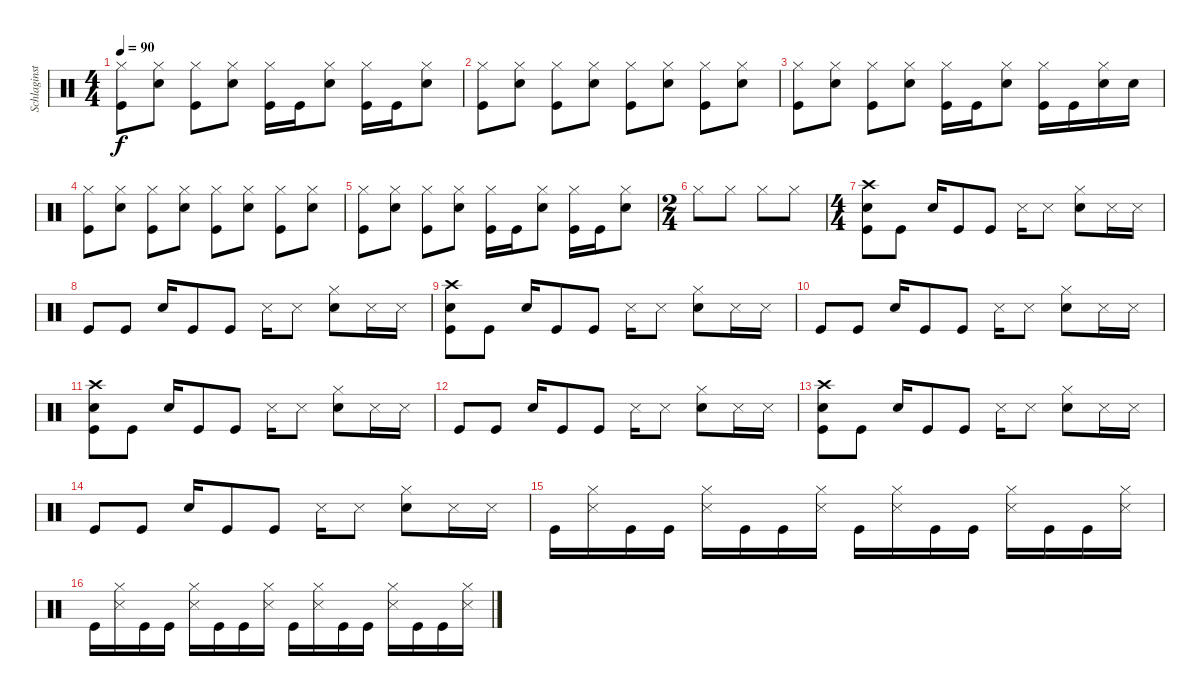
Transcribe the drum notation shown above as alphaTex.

\track ("Schlaginstrumente - Auswahl" "Schlaginst") {instrument percussion}
\staff {score}
\articulation defaults
\ts (4 4)
\tempo 90
\clef neutral
\ks c
("Hi-Hat (closed)" "Kick (hit)").8{dy f} ("Hi-Hat (closed)" "Snare (hit) 2").8 ("Hi-Hat (closed)" "Kick (hit)").8 ("Hi-Hat (closed)" "Snare (hit) 2").8 ("Hi-Hat (closed)" "Kick (hit)").16 "Kick (hit)".16 ("Hi-Hat (closed)" "Snare (hit) 2").8 ("Hi-Hat (closed)" "Kick (hit)").16 "Kick (hit)".16 ("Hi-Hat (closed)" "Snare (hit) 2").8 |
("Hi-Hat (closed)" "Kick (hit)").8 ("Hi-Hat (closed)" "Snare (hit) 2").8 ("Hi-Hat (closed)" "Kick (hit)").8 ("Hi-Hat (closed)" "Snare (hit) 2").8 ("Hi-Hat (closed)" "Kick (hit)").8 ("Hi-Hat (closed)" "Snare (hit) 2").8 ("Hi-Hat (closed)" "Kick (hit)").8 ("Hi-Hat (closed)" "Snare (hit) 2").8 |
("Hi-Hat (closed)" "Kick (hit)").8 ("Hi-Hat (closed)" "Snare (hit) 2").8 ("Hi-Hat (closed)" "Kick (hit)").8 ("Hi-Hat (closed)" "Snare (hit) 2").8 ("Hi-Hat (closed)" "Kick (hit)").16 "Kick (hit)".16 ("Hi-Hat (closed)" "Snare (hit) 2").8 ("Hi-Hat (closed)" "Kick (hit)").16 "Kick (hit)".16 ("Hi-Hat (closed)" "Snare (hit) 2").16 "Snare (hit) 2".16 |
("Hi-Hat (closed)" "Kick (hit)").8 ("Hi-Hat (closed)" "Snare (hit) 2").8 ("Hi-Hat (closed)" "Kick (hit)").8 ("Hi-Hat (closed)" "Snare (hit) 2").8 ("Hi-Hat (closed)" "Kick (hit)").8 ("Hi-Hat (closed)" "Snare (hit) 2").8 ("Hi-Hat (closed)" "Kick (hit)").8 ("Hi-Hat (closed)" "Snare (hit) 2").8 |
("Hi-Hat (closed)" "Kick (hit)").8 ("Hi-Hat (closed)" "Snare (hit) 2").8 ("Hi-Hat (closed)" "Kick (hit)").8 ("Hi-Hat (closed)" "Snare (hit) 2").8 ("Hi-Hat (closed)" "Kick (hit)").16 "Kick (hit)".16 ("Hi-Hat (closed)" "Snare (hit) 2").8 ("Hi-Hat (closed)" "Kick (hit)").16 "Kick (hit)".16 ("Hi-Hat (closed)" "Snare (hit) 2").8 |
\ts (2 4)
"Hi-Hat (closed)".8 "Hi-Hat (closed)".8 "Hi-Hat (closed)".8 "Hi-Hat (closed)".8 |
\ts (4 4)
("Crash high (hit)" "Snare (hit) 2" "Kick (hit)").8 "Kick (hit)".8 "Snare (hit) 2".16 "Kick (hit)".8 "Kick (hit)".8 "Snare (side stick) 3".16 "Snare (side stick) 3".8 ("Hi-Hat (closed)" "Snare (hit) 2").8 "Snare (side stick) 3".16 "Snare (side stick) 3".16 |
"Kick (hit)".8 "Kick (hit)".8 "Snare (hit) 2".16 "Kick (hit)".8 "Kick (hit)".8 "Snare (side stick) 3".16 "Snare (side stick) 3".8 ("Hi-Hat (closed)" "Snare (hit) 2").8 "Snare (side stick) 3".16 "Snare (side stick) 3".16 |
("Crash high (hit)" "Snare (hit) 2" "Kick (hit)").8 "Kick (hit)".8 "Snare (hit) 2".16 "Kick (hit)".8 "Kick (hit)".8 "Snare (side stick) 3".16 "Snare (side stick) 3".8 ("Hi-Hat (closed)" "Snare (hit) 2").8 "Snare (side stick) 3".16 "Snare (side stick) 3".16 |
"Kick (hit)".8 "Kick (hit)".8 "Snare (hit) 2".16 "Kick (hit)".8 "Kick (hit)".8 "Snare (side stick) 3".16 "Snare (side stick) 3".8 ("Hi-Hat (closed)" "Snare (hit) 2").8 "Snare (side stick) 3".16 "Snare (side stick) 3".16 |
("Crash high (hit)" "Snare (hit) 2" "Kick (hit)").8 "Kick (hit)".8 "Snare (hit) 2".16 "Kick (hit)".8 "Kick (hit)".8 "Snare (side stick) 3".16 "Snare (side stick) 3".8 ("Hi-Hat (closed)" "Snare (hit) 2").8 "Snare (side stick) 3".16 "Snare (side stick) 3".16 |
"Kick (hit)".8 "Kick (hit)".8 "Snare (hit) 2".16 "Kick (hit)".8 "Kick (hit)".8 "Snare (side stick) 3".16 "Snare (side stick) 3".8 ("Hi-Hat (closed)" "Snare (hit) 2").8 "Snare (side stick) 3".16 "Snare (side stick) 3".16 |
("Crash high (hit)" "Snare (hit) 2" "Kick (hit)").8 "Kick (hit)".8 "Snare (hit) 2".16 "Kick (hit)".8 "Kick (hit)".8 "Snare (side stick) 3".16 "Snare (side stick) 3".8 ("Hi-Hat (closed)" "Snare (hit) 2").8 "Snare (side stick) 3".16 "Snare (side stick) 3".16 |
"Kick (hit)".8 "Kick (hit)".8 "Snare (hit) 2".16 "Kick (hit)".8 "Kick (hit)".8 "Snare (side stick) 3".16 "Snare (side stick) 3".8 ("Hi-Hat (closed)" "Snare (hit) 2").8 "Snare (side stick) 3".16 "Snare (side stick) 3".16 |
"Kick (hit)".16 ("Hi-Hat (closed)" "Snare (side stick) 3").16 "Kick (hit)".16 "Kick (hit)".16 ("Hi-Hat (closed)" "Snare (side stick) 3").16 "Kick (hit)".16 "Kick (hit)".16 ("Hi-Hat (closed)" "Snare (side stick) 3").16 "Kick (hit)".16 ("Hi-Hat (closed)" "Snare (side stick) 3").16 "Kick (hit)".16 "Kick (hit)".16 ("Hi-Hat (closed)" "Snare (side stick) 3").16 "Kick (hit)".16 "Kick (hit)".16 ("Hi-Hat (closed)" "Snare (side stick) 3").16 |
"Kick (hit)".16 ("Hi-Hat (closed)" "Snare (side stick) 3").16 "Kick (hit)".16 "Kick (hit)".16 ("Hi-Hat (closed)" "Snare (side stick) 3").16 "Kick (hit)".16 "Kick (hit)".16 ("Hi-Hat (closed)" "Snare (side stick) 3").16 "Kick (hit)".16 ("Hi-Hat (closed)" "Snare (side stick) 3").16 "Kick (hit)".16 "Kick (hit)".16 ("Hi-Hat (closed)" "Snare (side stick) 3").16 "Kick (hit)".16 "Kick (hit)".16 ("Hi-Hat (closed)" "Snare (side stick) 3").16
